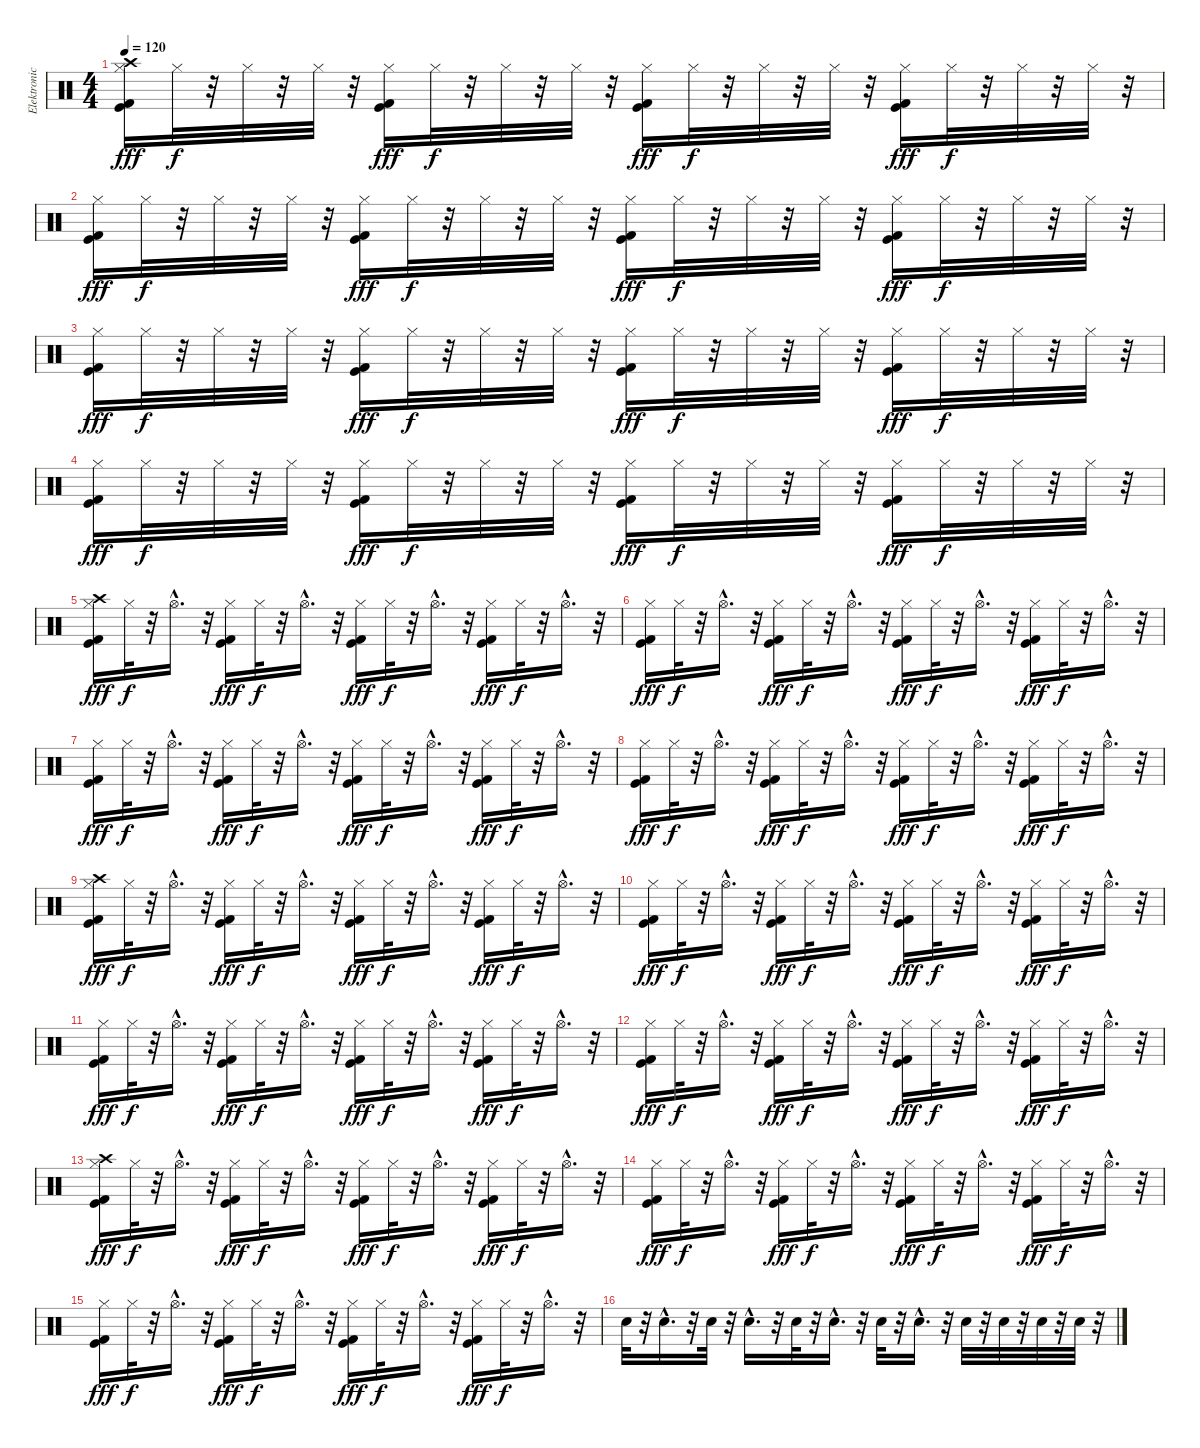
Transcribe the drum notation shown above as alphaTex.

\track ("Elektronické bicí 2" "Elektronic") {instrument percussion}
\staff {score}
\articulation defaults
\ts (4 4)
\tempo 120
\clef neutral
\ks c
("Crash high (hit)" "Hi-Hat (closed)" "Kick (hit) 2" "Kick (hit)").16{dy fff} "Hi-Hat (closed)".32{dy f} r.32 "Hi-Hat (closed)".32 r.32 "Hi-Hat (closed)".32 r.32 ("Hi-Hat (closed)" "Kick (hit) 2" "Kick (hit)").16{dy fff} "Hi-Hat (closed)".32{dy f} r.32 "Hi-Hat (closed)".32 r.32 "Hi-Hat (closed)".32 r.32 ("Hi-Hat (closed)" "Kick (hit) 2" "Kick (hit)").16{dy fff} "Hi-Hat (closed)".32{dy f} r.32 "Hi-Hat (closed)".32 r.32 "Hi-Hat (closed)".32 r.32 ("Hi-Hat (closed)" "Kick (hit) 2" "Kick (hit)").16{dy fff} "Hi-Hat (closed)".32{dy f} r.32 "Hi-Hat (closed)".32 r.32 "Hi-Hat (closed)".32 r.32 |
("Hi-Hat (closed)" "Kick (hit) 2" "Kick (hit)").16{dy fff} "Hi-Hat (closed)".32{dy f} r.32 "Hi-Hat (closed)".32 r.32 "Hi-Hat (closed)".32 r.32 ("Hi-Hat (closed)" "Kick (hit) 2" "Kick (hit)").16{dy fff} "Hi-Hat (closed)".32{dy f} r.32 "Hi-Hat (closed)".32 r.32 "Hi-Hat (closed)".32 r.32 ("Hi-Hat (closed)" "Kick (hit) 2" "Kick (hit)").16{dy fff} "Hi-Hat (closed)".32{dy f} r.32 "Hi-Hat (closed)".32 r.32 "Hi-Hat (closed)".32 r.32 ("Hi-Hat (closed)" "Kick (hit) 2" "Kick (hit)").16{dy fff} "Hi-Hat (closed)".32{dy f} r.32 "Hi-Hat (closed)".32 r.32 "Hi-Hat (closed)".32 r.32 |
("Hi-Hat (closed)" "Kick (hit) 2" "Kick (hit)").16{dy fff} "Hi-Hat (closed)".32{dy f} r.32 "Hi-Hat (closed)".32 r.32 "Hi-Hat (closed)".32 r.32 ("Hi-Hat (closed)" "Kick (hit) 2" "Kick (hit)").16{dy fff} "Hi-Hat (closed)".32{dy f} r.32 "Hi-Hat (closed)".32 r.32 "Hi-Hat (closed)".32 r.32 ("Hi-Hat (closed)" "Kick (hit) 2" "Kick (hit)").16{dy fff} "Hi-Hat (closed)".32{dy f} r.32 "Hi-Hat (closed)".32 r.32 "Hi-Hat (closed)".32 r.32 ("Hi-Hat (closed)" "Kick (hit) 2" "Kick (hit)").16{dy fff} "Hi-Hat (closed)".32{dy f} r.32 "Hi-Hat (closed)".32 r.32 "Hi-Hat (closed)".32 r.32 |
("Hi-Hat (closed)" "Kick (hit) 2" "Kick (hit)").16{dy fff} "Hi-Hat (closed)".32{dy f} r.32 "Hi-Hat (closed)".32 r.32 "Hi-Hat (closed)".32 r.32 ("Hi-Hat (closed)" "Kick (hit) 2" "Kick (hit)").16{dy fff} "Hi-Hat (closed)".32{dy f} r.32 "Hi-Hat (closed)".32 r.32 "Hi-Hat (closed)".32 r.32 ("Hi-Hat (closed)" "Kick (hit) 2" "Kick (hit)").16{dy fff} "Hi-Hat (closed)".32{dy f} r.32 "Hi-Hat (closed)".32 r.32 "Hi-Hat (closed)".32 r.32 ("Hi-Hat (closed)" "Kick (hit) 2" "Kick (hit)").16{dy fff} "Hi-Hat (closed)".32{dy f} r.32 "Hi-Hat (closed)".32 r.32 "Hi-Hat (closed)".32 r.32 |
("Crash high (hit)" "Hi-Hat (closed)" "Kick (hit) 2" "Kick (hit)").16{dy fff} "Hi-Hat (closed)".32{dy f} r.32 "Hi-Hat (open)"{hac}.16{d} r.32 ("Hi-Hat (closed)" "Kick (hit) 2" "Kick (hit)").16{dy fff} "Hi-Hat (closed)".32{dy f} r.32 "Hi-Hat (open)"{hac}.16{d} r.32 ("Hi-Hat (closed)" "Kick (hit) 2" "Kick (hit)").16{dy fff} "Hi-Hat (closed)".32{dy f} r.32 "Hi-Hat (open)"{hac}.16{d} r.32 ("Hi-Hat (closed)" "Kick (hit) 2" "Kick (hit)").16{dy fff} "Hi-Hat (closed)".32{dy f} r.32 "Hi-Hat (open)"{hac}.16{d} r.32 |
("Hi-Hat (closed)" "Kick (hit) 2" "Kick (hit)").16{dy fff} "Hi-Hat (closed)".32{dy f} r.32 "Hi-Hat (open)"{hac}.16{d} r.32 ("Hi-Hat (closed)" "Kick (hit) 2" "Kick (hit)").16{dy fff} "Hi-Hat (closed)".32{dy f} r.32 "Hi-Hat (open)"{hac}.16{d} r.32 ("Hi-Hat (closed)" "Kick (hit) 2" "Kick (hit)").16{dy fff} "Hi-Hat (closed)".32{dy f} r.32 "Hi-Hat (open)"{hac}.16{d} r.32 ("Hi-Hat (closed)" "Kick (hit) 2" "Kick (hit)").16{dy fff} "Hi-Hat (closed)".32{dy f} r.32 "Hi-Hat (open)"{hac}.16{d} r.32 |
("Hi-Hat (closed)" "Kick (hit) 2" "Kick (hit)").16{dy fff} "Hi-Hat (closed)".32{dy f} r.32 "Hi-Hat (open)"{hac}.16{d} r.32 ("Hi-Hat (closed)" "Kick (hit) 2" "Kick (hit)").16{dy fff} "Hi-Hat (closed)".32{dy f} r.32 "Hi-Hat (open)"{hac}.16{d} r.32 ("Hi-Hat (closed)" "Kick (hit) 2" "Kick (hit)").16{dy fff} "Hi-Hat (closed)".32{dy f} r.32 "Hi-Hat (open)"{hac}.16{d} r.32 ("Hi-Hat (closed)" "Kick (hit) 2" "Kick (hit)").16{dy fff} "Hi-Hat (closed)".32{dy f} r.32 "Hi-Hat (open)"{hac}.16{d} r.32 |
("Hi-Hat (closed)" "Kick (hit) 2" "Kick (hit)").16{dy fff} "Hi-Hat (closed)".32{dy f} r.32 "Hi-Hat (open)"{hac}.16{d} r.32 ("Hi-Hat (closed)" "Kick (hit) 2" "Kick (hit)").16{dy fff} "Hi-Hat (closed)".32{dy f} r.32 "Hi-Hat (open)"{hac}.16{d} r.32 ("Hi-Hat (closed)" "Kick (hit) 2" "Kick (hit)").16{dy fff} "Hi-Hat (closed)".32{dy f} r.32 "Hi-Hat (open)"{hac}.16{d} r.32 ("Hi-Hat (closed)" "Kick (hit) 2" "Kick (hit)").16{dy fff} "Hi-Hat (closed)".32{dy f} r.32 "Hi-Hat (open)"{hac}.16{d} r.32 |
("Crash high (hit)" "Hi-Hat (closed)" "Kick (hit) 2" "Kick (hit)").16{dy fff} "Hi-Hat (closed)".32{dy f} r.32 "Hi-Hat (open)"{hac}.16{d} r.32 ("Hi-Hat (closed)" "Kick (hit) 2" "Kick (hit)").16{dy fff} "Hi-Hat (closed)".32{dy f} r.32 "Hi-Hat (open)"{hac}.16{d} r.32 ("Hi-Hat (closed)" "Kick (hit) 2" "Kick (hit)").16{dy fff} "Hi-Hat (closed)".32{dy f} r.32 "Hi-Hat (open)"{hac}.16{d} r.32 ("Hi-Hat (closed)" "Kick (hit) 2" "Kick (hit)").16{dy fff} "Hi-Hat (closed)".32{dy f} r.32 "Hi-Hat (open)"{hac}.16{d} r.32 |
("Hi-Hat (closed)" "Kick (hit) 2" "Kick (hit)").16{dy fff} "Hi-Hat (closed)".32{dy f} r.32 "Hi-Hat (open)"{hac}.16{d} r.32 ("Hi-Hat (closed)" "Kick (hit) 2" "Kick (hit)").16{dy fff} "Hi-Hat (closed)".32{dy f} r.32 "Hi-Hat (open)"{hac}.16{d} r.32 ("Hi-Hat (closed)" "Kick (hit) 2" "Kick (hit)").16{dy fff} "Hi-Hat (closed)".32{dy f} r.32 "Hi-Hat (open)"{hac}.16{d} r.32 ("Hi-Hat (closed)" "Kick (hit) 2" "Kick (hit)").16{dy fff} "Hi-Hat (closed)".32{dy f} r.32 "Hi-Hat (open)"{hac}.16{d} r.32 |
("Hi-Hat (closed)" "Kick (hit) 2" "Kick (hit)").16{dy fff} "Hi-Hat (closed)".32{dy f} r.32 "Hi-Hat (open)"{hac}.16{d} r.32 ("Hi-Hat (closed)" "Kick (hit) 2" "Kick (hit)").16{dy fff} "Hi-Hat (closed)".32{dy f} r.32 "Hi-Hat (open)"{hac}.16{d} r.32 ("Hi-Hat (closed)" "Kick (hit) 2" "Kick (hit)").16{dy fff} "Hi-Hat (closed)".32{dy f} r.32 "Hi-Hat (open)"{hac}.16{d} r.32 ("Hi-Hat (closed)" "Kick (hit) 2" "Kick (hit)").16{dy fff} "Hi-Hat (closed)".32{dy f} r.32 "Hi-Hat (open)"{hac}.16{d} r.32 |
("Hi-Hat (closed)" "Kick (hit) 2" "Kick (hit)").16{dy fff} "Hi-Hat (closed)".32{dy f} r.32 "Hi-Hat (open)"{hac}.16{d} r.32 ("Hi-Hat (closed)" "Kick (hit) 2" "Kick (hit)").16{dy fff} "Hi-Hat (closed)".32{dy f} r.32 "Hi-Hat (open)"{hac}.16{d} r.32 ("Hi-Hat (closed)" "Kick (hit) 2" "Kick (hit)").16{dy fff} "Hi-Hat (closed)".32{dy f} r.32 "Hi-Hat (open)"{hac}.16{d} r.32 ("Hi-Hat (closed)" "Kick (hit) 2" "Kick (hit)").16{dy fff} "Hi-Hat (closed)".32{dy f} r.32 "Hi-Hat (open)"{hac}.16{d} r.32 |
("Crash high (hit)" "Hi-Hat (closed)" "Kick (hit) 2" "Kick (hit)").16{dy fff} "Hi-Hat (closed)".32{dy f} r.32 "Hi-Hat (open)"{hac}.16{d} r.32 ("Hi-Hat (closed)" "Kick (hit) 2" "Kick (hit)").16{dy fff} "Hi-Hat (closed)".32{dy f} r.32 "Hi-Hat (open)"{hac}.16{d} r.32 ("Hi-Hat (closed)" "Kick (hit) 2" "Kick (hit)").16{dy fff} "Hi-Hat (closed)".32{dy f} r.32 "Hi-Hat (open)"{hac}.16{d} r.32 ("Hi-Hat (closed)" "Kick (hit) 2" "Kick (hit)").16{dy fff} "Hi-Hat (closed)".32{dy f} r.32 "Hi-Hat (open)"{hac}.16{d} r.32 |
("Hi-Hat (closed)" "Kick (hit) 2" "Kick (hit)").16{dy fff} "Hi-Hat (closed)".32{dy f} r.32 "Hi-Hat (open)"{hac}.16{d} r.32 ("Hi-Hat (closed)" "Kick (hit) 2" "Kick (hit)").16{dy fff} "Hi-Hat (closed)".32{dy f} r.32 "Hi-Hat (open)"{hac}.16{d} r.32 ("Hi-Hat (closed)" "Kick (hit) 2" "Kick (hit)").16{dy fff} "Hi-Hat (closed)".32{dy f} r.32 "Hi-Hat (open)"{hac}.16{d} r.32 ("Hi-Hat (closed)" "Kick (hit) 2" "Kick (hit)").16{dy fff} "Hi-Hat (closed)".32{dy f} r.32 "Hi-Hat (open)"{hac}.16{d} r.32 |
("Hi-Hat (closed)" "Kick (hit) 2" "Kick (hit)").16{dy fff} "Hi-Hat (closed)".32{dy f} r.32 "Hi-Hat (open)"{hac}.16{d} r.32 ("Hi-Hat (closed)" "Kick (hit) 2" "Kick (hit)").16{dy fff} "Hi-Hat (closed)".32{dy f} r.32 "Hi-Hat (open)"{hac}.16{d} r.32 ("Hi-Hat (closed)" "Kick (hit) 2" "Kick (hit)").16{dy fff} "Hi-Hat (closed)".32{dy f} r.32 "Hi-Hat (open)"{hac}.16{d} r.32 ("Hi-Hat (closed)" "Kick (hit) 2" "Kick (hit)").16{dy fff} "Hi-Hat (closed)".32{dy f} r.32 "Hi-Hat (open)"{hac}.16{d} r.32 |
"Electric Snare (hit)".32 r.32 "Electric Snare (hit)"{hac}.16{d} r.32 "Electric Snare (hit)".32 r.32 "Electric Snare (hit)"{hac}.16{d} r.32 "Electric Snare (hit)".32 r.32 "Electric Snare (hit)"{hac}.16{d} r.32 "Electric Snare (hit)".32 r.32 "Electric Snare (hit)"{hac}.16{d} r.32 "Electric Snare (hit)".32 r.32 "Electric Snare (hit)".32 r.32 "Electric Snare (hit)".32 r.32 "Electric Snare (hit)".32 r.32
